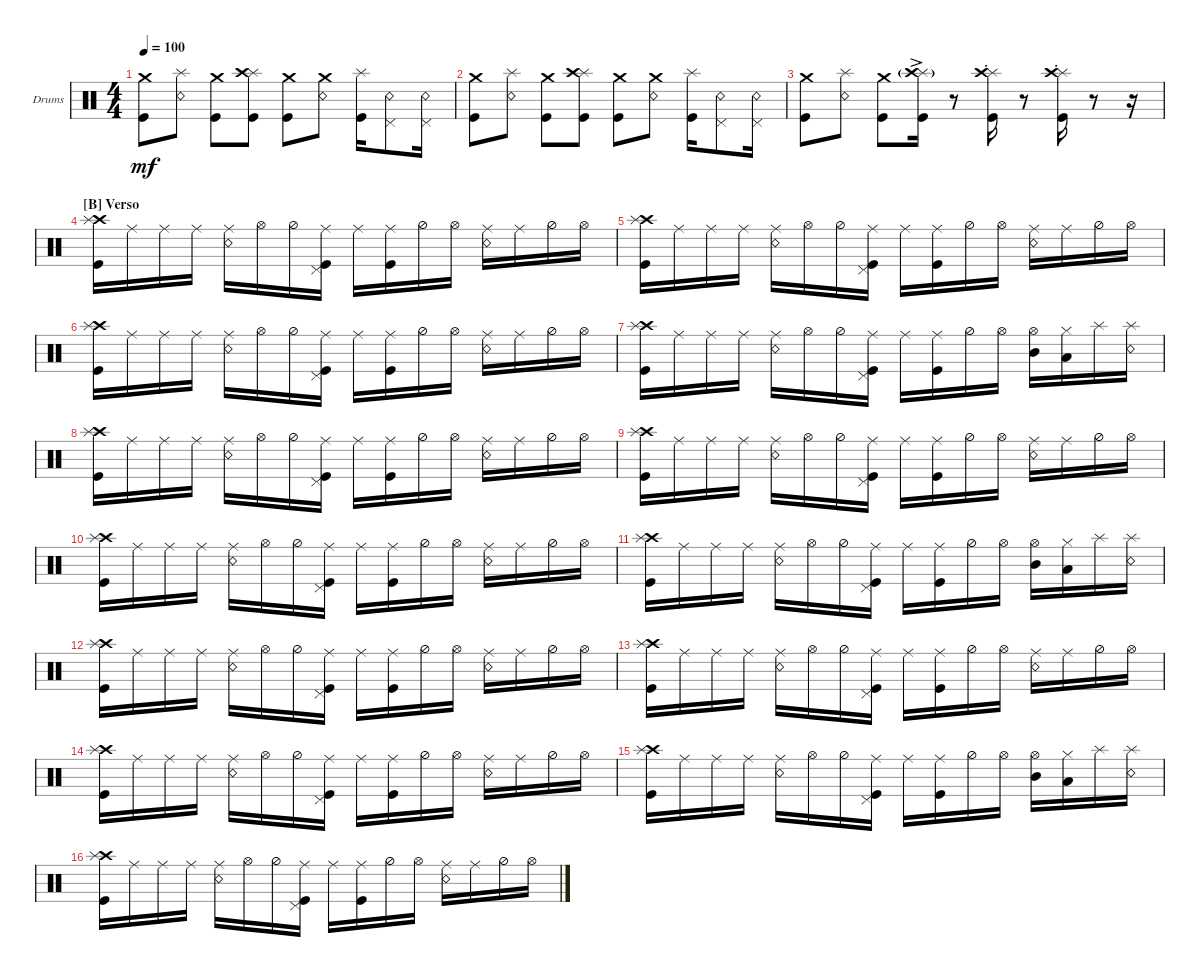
\defaultSystemsLayout 4
\bracketExtendMode groupsimilarinstruments
\firstSystemTrackNameOrientation horizontal
\otherSystemsTrackNameOrientation horizontal
\track ("Bateria" "Drums") {multiBarRest instrument percussion}
\staff {score}
\articulation defaults
\ts (4 4)
\tempo 100
\clef neutral
\ks c
("Kick (hit)" "Crash medium (hit)").8{dy mf} ("Snare (rim shot)" "Splash (hit)").8 ("Kick (hit)" "Crash medium (hit)").8 ("Splash (hit)" "Kick (hit)" "Crash high (hit)").8 ("Kick (hit)" "Crash medium (hit)").8 ("Snare (rim shot)" "Crash medium (hit)").8 ("Kick (hit)" "Splash (hit)").16 ("Snare (rim shot)" "Pedal Hi-Hat (hit)").8 ("Snare (rim shot)" "Pedal Hi-Hat (hit)").16 |
("Kick (hit)" "Crash medium (hit)").8 ("Snare (rim shot)" "Splash (hit)").8 ("Kick (hit)" "Crash medium (hit)").8 ("Splash (hit)" "Kick (hit)" "Crash high (hit)").8 ("Kick (hit)" "Crash medium (hit)").8 ("Snare (rim shot)" "Crash medium (hit)").8 ("Kick (hit)" "Splash (hit)").16 ("Snare (rim shot)" "Pedal Hi-Hat (hit)").8 ("Snare (rim shot)" "Pedal Hi-Hat (hit)").16 |
("Kick (hit)" "Crash medium (hit)").8 ("Snare (rim shot)" "Splash (hit)").8 ("Kick (hit)" "Crash medium (hit)").8 ("Splash (hit)"{g} "Kick (hit)"{ac} "Crash high (hit)"{g}).16 r.8 ("Splash (hit)" "Kick (hit)"{st} "Crash high (hit)").16 r.8 ("Splash (hit)" "Kick (hit)"{st} "Crash high (hit)").16 r.8 r.16 |
\section ("B" "Verso")
("Kick (hit)" "Crash high (hit)" "Splash (hit)").16 "Ride (middle)".16 "Ride (middle)".16 "Ride (middle)".16 ("Ride (middle)" "Snare (rim shot)").16 "Hi-Hat (open)".16 "Hi-Hat (half)".16 ("Ride (middle)" "Kick (hit)" "Pedal Hi-Hat (hit)").16 "Ride (middle)".16 ("Ride (middle)" "Kick (hit)").16 "Hi-Hat (half)".16 "Hi-Hat (open)".16 ("Ride (middle)" "Snare (rim shot)").16 "Ride (middle)".16 "Hi-Hat (half)".16 "Hi-Hat (open)".16 |
("Kick (hit)" "Crash high (hit)" "Splash (hit)").16 "Ride (middle)".16 "Ride (middle)".16 "Ride (middle)".16 ("Ride (middle)" "Snare (rim shot)").16 "Hi-Hat (open)".16 "Hi-Hat (half)".16 ("Ride (middle)" "Kick (hit)" "Pedal Hi-Hat (hit)").16 "Ride (middle)".16 ("Ride (middle)" "Kick (hit)").16 "Hi-Hat (half)".16 "Hi-Hat (open)".16 ("Ride (middle)" "Snare (rim shot)").16 "Ride (middle)".16 "Hi-Hat (half)".16 "Hi-Hat (open)".16 |
("Kick (hit)" "Crash high (hit)" "Splash (hit)").16 "Ride (middle)".16 "Ride (middle)".16 "Ride (middle)".16 ("Ride (middle)" "Snare (rim shot)").16 "Hi-Hat (open)".16 "Hi-Hat (half)".16 ("Ride (middle)" "Kick (hit)" "Pedal Hi-Hat (hit)").16 "Ride (middle)".16 ("Ride (middle)" "Kick (hit)").16 "Hi-Hat (half)".16 "Hi-Hat (open)".16 ("Ride (middle)" "Snare (rim shot)").16 "Ride (middle)".16 "Hi-Hat (half)".16 "Hi-Hat (open)".16 |
("Kick (hit)" "Crash high (hit)" "Splash (hit)").16 "Ride (middle)".16 "Ride (middle)".16 "Ride (middle)".16 ("Ride (middle)" "Snare (rim shot)").16 "Hi-Hat (open)".16 "Hi-Hat (half)".16 ("Ride (middle)" "Kick (hit)" "Pedal Hi-Hat (hit)").16 "Ride (middle)".16 ("Ride (middle)" "Kick (hit)").16 "Hi-Hat (half)".16 "Hi-Hat (open)".16 ("Mid Tom (hit)" "Hi-Hat (open)").16 ("Low Tom (hit)" "Hi-Hat (closed)").16 "Splash (hit)".16 ("Snare (rim shot)" "Splash (hit)").16 |
("Kick (hit)" "Crash high (hit)" "Splash (hit)").16 "Ride (middle)".16 "Ride (middle)".16 "Ride (middle)".16 ("Ride (middle)" "Snare (rim shot)").16 "Hi-Hat (open)".16 "Hi-Hat (half)".16 ("Ride (middle)" "Kick (hit)" "Pedal Hi-Hat (hit)").16 "Ride (middle)".16 ("Ride (middle)" "Kick (hit)").16 "Hi-Hat (half)".16 "Hi-Hat (open)".16 ("Ride (middle)" "Snare (rim shot)").16 "Ride (middle)".16 "Hi-Hat (half)".16 "Hi-Hat (open)".16 |
("Kick (hit)" "Crash high (hit)" "Splash (hit)").16 "Ride (middle)".16 "Ride (middle)".16 "Ride (middle)".16 ("Ride (middle)" "Snare (rim shot)").16 "Hi-Hat (open)".16 "Hi-Hat (half)".16 ("Ride (middle)" "Kick (hit)" "Pedal Hi-Hat (hit)").16 "Ride (middle)".16 ("Ride (middle)" "Kick (hit)").16 "Hi-Hat (half)".16 "Hi-Hat (open)".16 ("Ride (middle)" "Snare (rim shot)").16 "Ride (middle)".16 "Hi-Hat (half)".16 "Hi-Hat (open)".16 |
("Kick (hit)" "Crash high (hit)" "Splash (hit)").16 "Ride (middle)".16 "Ride (middle)".16 "Ride (middle)".16 ("Ride (middle)" "Snare (rim shot)").16 "Hi-Hat (open)".16 "Hi-Hat (half)".16 ("Ride (middle)" "Kick (hit)" "Pedal Hi-Hat (hit)").16 "Ride (middle)".16 ("Ride (middle)" "Kick (hit)").16 "Hi-Hat (half)".16 "Hi-Hat (open)".16 ("Ride (middle)" "Snare (rim shot)").16 "Ride (middle)".16 "Hi-Hat (half)".16 "Hi-Hat (open)".16 |
("Kick (hit)" "Crash high (hit)" "Splash (hit)").16 "Ride (middle)".16 "Ride (middle)".16 "Ride (middle)".16 ("Ride (middle)" "Snare (rim shot)").16 "Hi-Hat (open)".16 "Hi-Hat (half)".16 ("Ride (middle)" "Kick (hit)" "Pedal Hi-Hat (hit)").16 "Ride (middle)".16 ("Ride (middle)" "Kick (hit)").16 "Hi-Hat (half)".16 "Hi-Hat (open)".16 ("Mid Tom (hit)" "Hi-Hat (open)").16 ("Low Tom (hit)" "Hi-Hat (closed)").16 "Splash (hit)".16 ("Snare (rim shot)" "Splash (hit)").16 |
("Kick (hit)" "Crash high (hit)" "Splash (hit)").16 "Ride (middle)".16 "Ride (middle)".16 "Ride (middle)".16 ("Ride (middle)" "Snare (rim shot)").16 "Hi-Hat (open)".16 "Hi-Hat (half)".16 ("Ride (middle)" "Kick (hit)" "Pedal Hi-Hat (hit)").16 "Ride (middle)".16 ("Ride (middle)" "Kick (hit)").16 "Hi-Hat (half)".16 "Hi-Hat (open)".16 ("Ride (middle)" "Snare (rim shot)").16 "Ride (middle)".16 "Hi-Hat (half)".16 "Hi-Hat (open)".16 |
("Kick (hit)" "Crash high (hit)" "Splash (hit)").16 "Ride (middle)".16 "Ride (middle)".16 "Ride (middle)".16 ("Ride (middle)" "Snare (rim shot)").16 "Hi-Hat (open)".16 "Hi-Hat (half)".16 ("Ride (middle)" "Kick (hit)" "Pedal Hi-Hat (hit)").16 "Ride (middle)".16 ("Ride (middle)" "Kick (hit)").16 "Hi-Hat (half)".16 "Hi-Hat (open)".16 ("Ride (middle)" "Snare (rim shot)").16 "Ride (middle)".16 "Hi-Hat (half)".16 "Hi-Hat (open)".16 |
("Kick (hit)" "Crash high (hit)" "Splash (hit)").16 "Ride (middle)".16 "Ride (middle)".16 "Ride (middle)".16 ("Ride (middle)" "Snare (rim shot)").16 "Hi-Hat (open)".16 "Hi-Hat (half)".16 ("Ride (middle)" "Kick (hit)" "Pedal Hi-Hat (hit)").16 "Ride (middle)".16 ("Ride (middle)" "Kick (hit)").16 "Hi-Hat (half)".16 "Hi-Hat (open)".16 ("Ride (middle)" "Snare (rim shot)").16 "Ride (middle)".16 "Hi-Hat (half)".16 "Hi-Hat (open)".16 |
("Kick (hit)" "Crash high (hit)" "Splash (hit)").16 "Ride (middle)".16 "Ride (middle)".16 "Ride (middle)".16 ("Ride (middle)" "Snare (rim shot)").16 "Hi-Hat (open)".16 "Hi-Hat (half)".16 ("Ride (middle)" "Kick (hit)" "Pedal Hi-Hat (hit)").16 "Ride (middle)".16 ("Ride (middle)" "Kick (hit)").16 "Hi-Hat (half)".16 "Hi-Hat (open)".16 ("Mid Tom (hit)" "Hi-Hat (open)").16 ("Low Tom (hit)" "Hi-Hat (closed)").16 "Splash (hit)".16 ("Snare (rim shot)" "Splash (hit)").16 |
("Kick (hit)" "Crash high (hit)" "Splash (hit)").16 "Ride (middle)".16 "Ride (middle)".16 "Ride (middle)".16 ("Ride (middle)" "Snare (rim shot)").16 "Hi-Hat (open)".16 "Hi-Hat (half)".16 ("Ride (middle)" "Kick (hit)" "Pedal Hi-Hat (hit)").16 "Ride (middle)".16 ("Ride (middle)" "Kick (hit)").16 "Hi-Hat (half)".16 "Hi-Hat (open)".16 ("Ride (middle)" "Snare (rim shot)").16 "Ride (middle)".16 "Hi-Hat (half)".16 "Hi-Hat (open)".16
